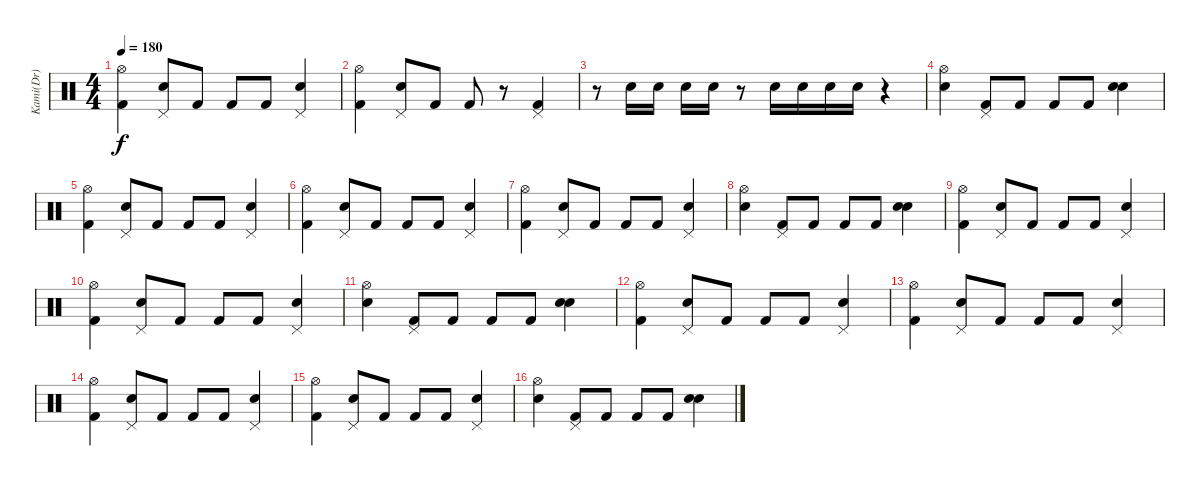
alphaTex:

\track ("Kami(Dr)" "Kami(Dr)") {instrument percussion}
\staff {score}
\articulation defaults
\ts (4 4)
\tempo 180
\clef neutral
\ks c
("Kick (hit) 2" "Hi-Hat (open)").4{dy f} ("Electric Snare (hit)" "Pedal Hi-Hat (hit)").8 "Kick (hit) 2".8 "Kick (hit) 2".8 "Kick (hit) 2".8 ("Electric Snare (hit)" "Pedal Hi-Hat (hit)").4 |
("Kick (hit) 2" "Hi-Hat (open)").4 ("Electric Snare (hit)" "Pedal Hi-Hat (hit)").8 "Kick (hit) 2".8 "Kick (hit) 2".8 r.8 ("Kick (hit) 2" "Pedal Hi-Hat (hit)").4 |
r.8 "Electric Snare (hit)".16 "Electric Snare (hit)".16 "Electric Snare (hit)".16 "Electric Snare (hit)".16 r.8 "Electric Snare (hit)".16 "Electric Snare (hit)".16 "Electric Snare (hit)".16 "Electric Snare (hit)".16 r.4 |
("Snare (hit) 2" "Hi-Hat (open)").4 ("Kick (hit) 2" "Pedal Hi-Hat (hit)").8 "Kick (hit) 2".8 "Kick (hit) 2".8 "Kick (hit) 2".8 ("Electric Snare (hit)" "Snare (hit) 2").4 |
("Kick (hit) 2" "Hi-Hat (open)").4 ("Electric Snare (hit)" "Pedal Hi-Hat (hit)").8 "Kick (hit) 2".8 "Kick (hit) 2".8 "Kick (hit) 2".8 ("Electric Snare (hit)" "Pedal Hi-Hat (hit)").4 |
("Kick (hit) 2" "Hi-Hat (open)").4 ("Electric Snare (hit)" "Pedal Hi-Hat (hit)").8 "Kick (hit) 2".8 "Kick (hit) 2".8 "Kick (hit) 2".8 ("Electric Snare (hit)" "Pedal Hi-Hat (hit)").4 |
("Kick (hit) 2" "Hi-Hat (open)").4 ("Electric Snare (hit)" "Pedal Hi-Hat (hit)").8 "Kick (hit) 2".8 "Kick (hit) 2".8 "Kick (hit) 2".8 ("Electric Snare (hit)" "Pedal Hi-Hat (hit)").4 |
("Snare (hit) 2" "Hi-Hat (open)").4 ("Kick (hit) 2" "Pedal Hi-Hat (hit)").8 "Kick (hit) 2".8 "Kick (hit) 2".8 "Kick (hit) 2".8 ("Electric Snare (hit)" "Snare (hit) 2").4 |
("Kick (hit) 2" "Hi-Hat (open)").4 ("Electric Snare (hit)" "Pedal Hi-Hat (hit)").8 "Kick (hit) 2".8 "Kick (hit) 2".8 "Kick (hit) 2".8 ("Electric Snare (hit)" "Pedal Hi-Hat (hit)").4 |
("Kick (hit) 2" "Hi-Hat (open)").4 ("Electric Snare (hit)" "Pedal Hi-Hat (hit)").8 "Kick (hit) 2".8 "Kick (hit) 2".8 "Kick (hit) 2".8 ("Electric Snare (hit)" "Pedal Hi-Hat (hit)").4 |
("Snare (hit) 2" "Hi-Hat (open)").4 ("Kick (hit) 2" "Pedal Hi-Hat (hit)").8 "Kick (hit) 2".8 "Kick (hit) 2".8 "Kick (hit) 2".8 ("Electric Snare (hit)" "Snare (hit) 2").4 |
("Kick (hit) 2" "Hi-Hat (open)").4 ("Electric Snare (hit)" "Pedal Hi-Hat (hit)").8 "Kick (hit) 2".8 "Kick (hit) 2".8 "Kick (hit) 2".8 ("Electric Snare (hit)" "Pedal Hi-Hat (hit)").4 |
("Kick (hit) 2" "Hi-Hat (open)").4 ("Electric Snare (hit)" "Pedal Hi-Hat (hit)").8 "Kick (hit) 2".8 "Kick (hit) 2".8 "Kick (hit) 2".8 ("Electric Snare (hit)" "Pedal Hi-Hat (hit)").4 |
("Kick (hit) 2" "Hi-Hat (open)").4 ("Electric Snare (hit)" "Pedal Hi-Hat (hit)").8 "Kick (hit) 2".8 "Kick (hit) 2".8 "Kick (hit) 2".8 ("Electric Snare (hit)" "Pedal Hi-Hat (hit)").4 |
("Kick (hit) 2" "Hi-Hat (open)").4 ("Electric Snare (hit)" "Pedal Hi-Hat (hit)").8 "Kick (hit) 2".8 "Kick (hit) 2".8 "Kick (hit) 2".8 ("Electric Snare (hit)" "Pedal Hi-Hat (hit)").4 |
("Snare (hit) 2" "Hi-Hat (open)").4 ("Kick (hit) 2" "Pedal Hi-Hat (hit)").8 "Kick (hit) 2".8 "Kick (hit) 2".8 "Kick (hit) 2".8 ("Electric Snare (hit)" "Snare (hit) 2").4
